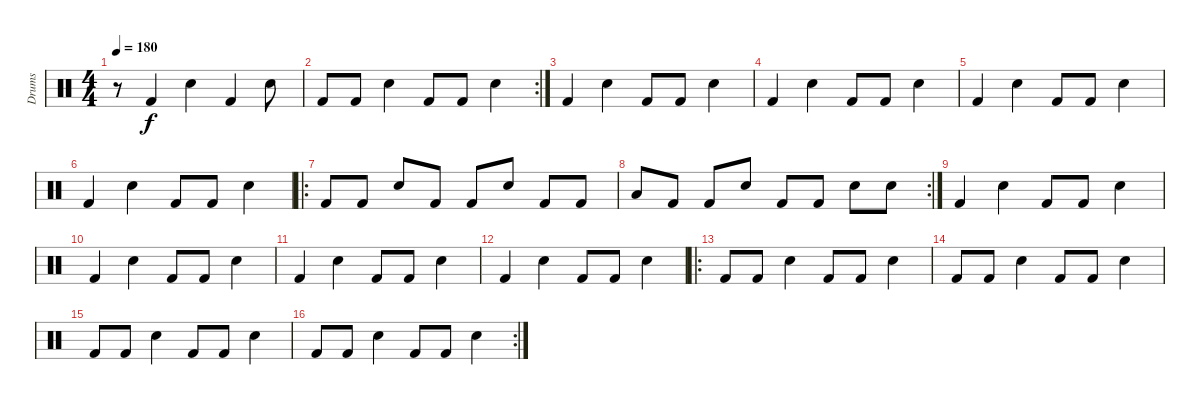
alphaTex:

\track ("Drums" "Drums") {instrument percussion}
\staff {score}
\articulation defaults
\ts (4 4)
\tempo 180
\clef neutral
\ks c
r.8{dy f} "Kick (hit) 2".4 "Snare (hit) 2".4 "Kick (hit) 2".4 "Snare (hit) 2".8 |
\rc 2 "Kick (hit) 2".8 "Kick (hit) 2".8 "Snare (hit) 2".4 "Kick (hit) 2".8 "Kick (hit) 2".8 "Snare (hit) 2".4
|
"Kick (hit) 2".4 "Snare (hit) 2".4 "Kick (hit) 2".8 "Kick (hit) 2".8 "Snare (hit) 2".4 |
"Kick (hit) 2".4 "Snare (hit) 2".4 "Kick (hit) 2".8 "Kick (hit) 2".8 "Snare (hit) 2".4 |
"Kick (hit) 2".4 "Snare (hit) 2".4 "Kick (hit) 2".8 "Kick (hit) 2".8 "Snare (hit) 2".4 |
"Kick (hit) 2".4 "Snare (hit) 2".4 "Kick (hit) 2".8 "Kick (hit) 2".8 "Snare (hit) 2".4 |
\ro "Kick (hit) 2".8 "Kick (hit) 2".8 "Snare (hit) 2".8 "Kick (hit) 2".8 "Kick (hit) 2".8 "Electric Snare (hit)".8 "Kick (hit) 2".8 "Kick (hit) 2".8
|
\rc 2 "Low Floor Tom (hit)".8 "Kick (hit) 2".8 "Kick (hit) 2".8 "Snare (hit) 2".8 "Kick (hit) 2".8 "Kick (hit) 2".8 "Snare (hit) 2".8 "Snare (hit) 2".8
|
"Kick (hit) 2".4 "Snare (hit) 2".4 "Kick (hit) 2".8 "Kick (hit) 2".8 "Snare (hit) 2".4 |
"Kick (hit) 2".4 "Snare (hit) 2".4 "Kick (hit) 2".8 "Kick (hit) 2".8 "Snare (hit) 2".4 |
"Kick (hit) 2".4 "Snare (hit) 2".4 "Kick (hit) 2".8 "Kick (hit) 2".8 "Snare (hit) 2".4 |
"Kick (hit) 2".4 "Snare (hit) 2".4 "Kick (hit) 2".8 "Kick (hit) 2".8 "Snare (hit) 2".4 |
\ro "Kick (hit) 2".8 "Kick (hit) 2".8 "Snare (hit) 2".4 "Kick (hit) 2".8 "Kick (hit) 2".8 "Snare (hit) 2".4
|
"Kick (hit) 2".8 "Kick (hit) 2".8 "Snare (hit) 2".4 "Kick (hit) 2".8 "Kick (hit) 2".8 "Snare (hit) 2".4 |
"Kick (hit) 2".8 "Kick (hit) 2".8 "Snare (hit) 2".4 "Kick (hit) 2".8 "Kick (hit) 2".8 "Snare (hit) 2".4 |
\rc 2 "Kick (hit) 2".8 "Kick (hit) 2".8 "Snare (hit) 2".4 "Kick (hit) 2".8 "Kick (hit) 2".8 "Snare (hit) 2".4
